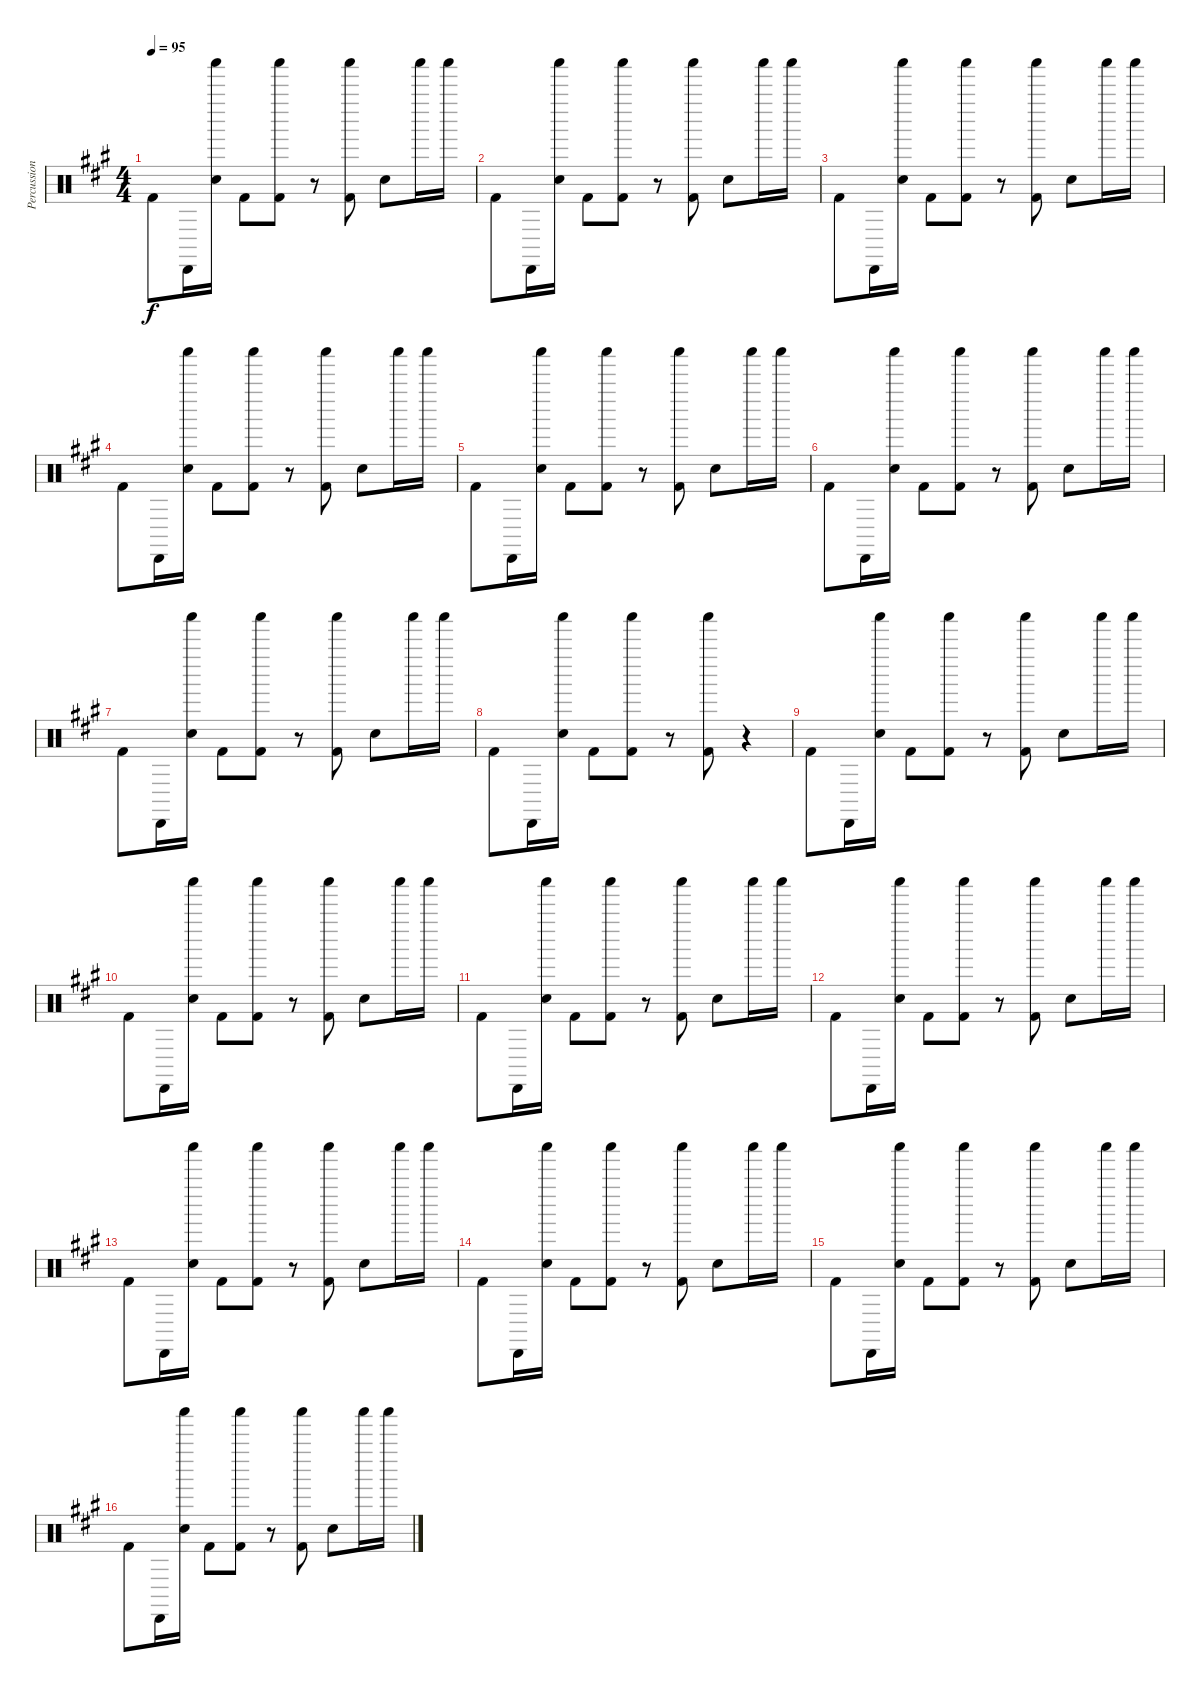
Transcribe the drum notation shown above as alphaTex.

\track ("Percussions" "Percussion") {instrument percussion}
\staff {score}
\articulation defaults
\ts (4 4)
\tempo 95
\clef neutral
\ks a "Kick (hit) 2".8{dy f} "Cabasa (hit)".16
("Hand Clap (hit)" "Shaker (hit)").16 "Kick (hit) 2".8 ("Kick (hit) 2" "Shaker (hit)").8 r.8 ("Kick (hit) 2" "Shaker (hit)").8 "Hand Clap (hit)".8 "Shaker (hit)".16 "Shaker (hit)".16 |
"Kick (hit) 2".8 "Cabasa (hit)".16 ("Hand Clap (hit)" "Shaker (hit)").16 "Kick (hit) 2".8 ("Kick (hit) 2" "Shaker (hit)").8 r.8 ("Kick (hit) 2" "Shaker (hit)").8 "Hand Clap (hit)".8 "Shaker (hit)".16 "Shaker (hit)".16 |
"Kick (hit) 2".8 "Cabasa (hit)".16 ("Hand Clap (hit)" "Shaker (hit)").16 "Kick (hit) 2".8 ("Kick (hit) 2" "Shaker (hit)").8 r.8 ("Kick (hit) 2" "Shaker (hit)").8 "Hand Clap (hit)".8 "Shaker (hit)".16 "Shaker (hit)".16 |
"Kick (hit) 2".8 "Cabasa (hit)".16 ("Hand Clap (hit)" "Shaker (hit)").16 "Kick (hit) 2".8 ("Kick (hit) 2" "Shaker (hit)").8 r.8 ("Kick (hit) 2" "Shaker (hit)").8 "Hand Clap (hit)".8 "Shaker (hit)".16 "Shaker (hit)".16 |
"Kick (hit) 2".8 "Cabasa (hit)".16 ("Hand Clap (hit)" "Shaker (hit)").16 "Kick (hit) 2".8 ("Kick (hit) 2" "Shaker (hit)").8 r.8 ("Kick (hit) 2" "Shaker (hit)").8 "Hand Clap (hit)".8 "Shaker (hit)".16 "Shaker (hit)".16 |
"Kick (hit) 2".8 "Cabasa (hit)".16 ("Hand Clap (hit)" "Shaker (hit)").16 "Kick (hit) 2".8 ("Kick (hit) 2" "Shaker (hit)").8 r.8 ("Kick (hit) 2" "Shaker (hit)").8 "Hand Clap (hit)".8 "Shaker (hit)".16 "Shaker (hit)".16 |
"Kick (hit) 2".8 "Cabasa (hit)".16 ("Hand Clap (hit)" "Shaker (hit)").16 "Kick (hit) 2".8 ("Kick (hit) 2" "Shaker (hit)").8 r.8 ("Kick (hit) 2" "Shaker (hit)").8 "Hand Clap (hit)".8 "Shaker (hit)".16 "Shaker (hit)".16 |
"Kick (hit) 2".8 "Cabasa (hit)".16 ("Hand Clap (hit)" "Shaker (hit)").16 "Kick (hit) 2".8 ("Kick (hit) 2" "Shaker (hit)").8 r.8 ("Kick (hit) 2" "Shaker (hit)").8 r.4 |
"Kick (hit) 2".8 "Cabasa (hit)".16 ("Hand Clap (hit)" "Shaker (hit)").16 "Kick (hit) 2".8 ("Kick (hit) 2" "Shaker (hit)").8 r.8 ("Kick (hit) 2" "Shaker (hit)").8 "Hand Clap (hit)".8 "Shaker (hit)".16 "Shaker (hit)".16 |
"Kick (hit) 2".8 "Cabasa (hit)".16 ("Hand Clap (hit)" "Shaker (hit)").16 "Kick (hit) 2".8 ("Kick (hit) 2" "Shaker (hit)").8 r.8 ("Kick (hit) 2" "Shaker (hit)").8 "Hand Clap (hit)".8 "Shaker (hit)".16 "Shaker (hit)".16 |
"Kick (hit) 2".8 "Cabasa (hit)".16 ("Hand Clap (hit)" "Shaker (hit)").16 "Kick (hit) 2".8 ("Kick (hit) 2" "Shaker (hit)").8 r.8 ("Kick (hit) 2" "Shaker (hit)").8 "Hand Clap (hit)".8 "Shaker (hit)".16 "Shaker (hit)".16 |
"Kick (hit) 2".8 "Cabasa (hit)".16 ("Hand Clap (hit)" "Shaker (hit)").16 "Kick (hit) 2".8 ("Kick (hit) 2" "Shaker (hit)").8 r.8 ("Kick (hit) 2" "Shaker (hit)").8 "Hand Clap (hit)".8 "Shaker (hit)".16 "Shaker (hit)".16 |
"Kick (hit) 2".8 "Cabasa (hit)".16 ("Hand Clap (hit)" "Shaker (hit)").16 "Kick (hit) 2".8 ("Kick (hit) 2" "Shaker (hit)").8 r.8 ("Kick (hit) 2" "Shaker (hit)").8 "Hand Clap (hit)".8 "Shaker (hit)".16 "Shaker (hit)".16 |
"Kick (hit) 2".8 "Cabasa (hit)".16 ("Hand Clap (hit)" "Shaker (hit)").16 "Kick (hit) 2".8 ("Kick (hit) 2" "Shaker (hit)").8 r.8 ("Kick (hit) 2" "Shaker (hit)").8 "Hand Clap (hit)".8 "Shaker (hit)".16 "Shaker (hit)".16 |
"Kick (hit) 2".8 "Cabasa (hit)".16 ("Hand Clap (hit)" "Shaker (hit)").16 "Kick (hit) 2".8 ("Kick (hit) 2" "Shaker (hit)").8 r.8 ("Kick (hit) 2" "Shaker (hit)").8 "Hand Clap (hit)".8 "Shaker (hit)".16 "Shaker (hit)".16 |
"Kick (hit) 2".8 "Cabasa (hit)".16 ("Hand Clap (hit)" "Shaker (hit)").16 "Kick (hit) 2".8 ("Kick (hit) 2" "Shaker (hit)").8 r.8 ("Kick (hit) 2" "Shaker (hit)").8 "Hand Clap (hit)".8 "Shaker (hit)".16 "Shaker (hit)".16
